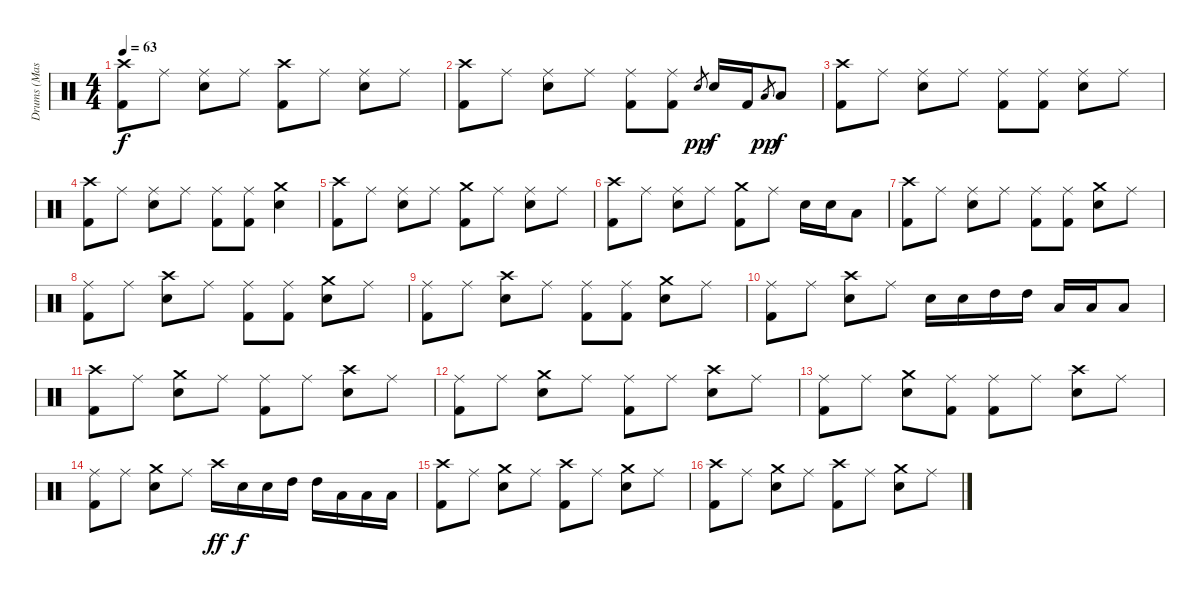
\track ("Drums (Mason)" "Drums (Mas") {instrument percussion}
\staff {score}
\articulation defaults
\ts (4 4)
\tempo 63
\clef neutral
\ks c
("Crash high (hit)" "Kick (hit) 2").8{dy f} "Ride (middle)".8 ("Ride (middle)" "Snare (hit) 2").8 "Ride (middle)".8 ("Crash high (hit)" "Kick (hit) 2").8 "Ride (middle)".8 ("Ride (middle)" "Snare (hit) 2").8 "Ride (middle)".8 |
("Crash high (hit)" "Kick (hit) 2").8 "Ride (middle)".8 ("Ride (middle)" "Snare (hit) 2").8 "Ride (middle)".8 ("Ride (middle)" "Kick (hit) 2").8 ("Ride (middle)" "Kick (hit) 2").8 "Snare (hit) 2".8{gr dy pp} "Snare (hit) 2".16{dy f} "Kick (hit) 2".16 "Low Tom (hit)".8{gr dy pp} "Low Tom (hit)".8{dy f} |
("Crash high (hit)" "Kick (hit) 2").8 "Ride (middle)".8 ("Ride (middle)" "Snare (hit) 2").8 "Ride (middle)".8 ("Ride (middle)" "Kick (hit) 2").8 ("Ride (middle)" "Kick (hit) 2").8 ("Ride (middle)" "Snare (hit) 2").8 "Ride (middle)".8 |
("Crash high (hit)" "Kick (hit) 2").8 "Ride (middle)".8 ("Ride (middle)" "Snare (hit) 2").8 "Ride (middle)".8 ("Ride (middle)" "Kick (hit) 2").8 ("Ride (middle)" "Kick (hit) 2").8 ("Crash medium (hit)" "Snare (hit) 2").4 |
("Crash high (hit)" "Kick (hit) 2").8 "Ride (middle)".8 ("Ride (middle)" "Snare (hit) 2").8 "Ride (middle)".8 ("Crash medium (hit)" "Kick (hit) 2").8 "Ride (middle)".8 ("Ride (middle)" "Snare (hit) 2").8 "Ride (middle)".8 |
("Crash high (hit)" "Kick (hit) 2").8 "Ride (middle)".8 ("Ride (middle)" "Snare (hit) 2").8 "Ride (middle)".8 ("Crash medium (hit)" "Kick (hit) 2").8 "Ride (middle)".8 "Snare (hit) 2".16 "Snare (hit) 2".16 "Low Tom (hit)".8 |
("Crash high (hit)" "Kick (hit) 2").8 "Ride (middle)".8 ("Ride (middle)" "Snare (hit) 2").8 "Ride (middle)".8 ("Ride (middle)" "Kick (hit) 2").8 ("Ride (middle)" "Kick (hit) 2").8 ("Crash medium (hit)" "Snare (hit) 2").8 "Ride (middle)".8 |
("Ride (middle)" "Kick (hit) 2").8 "Ride (middle)".8 ("Crash high (hit)" "Snare (hit) 2").8 "Ride (middle)".8 ("Ride (middle)" "Kick (hit) 2").8 ("Ride (middle)" "Kick (hit) 2").8 ("Crash medium (hit)" "Snare (hit) 2").8 "Ride (middle)".8 |
("Ride (middle)" "Kick (hit) 2").8 "Ride (middle)".8 ("Crash high (hit)" "Snare (hit) 2").8 "Ride (middle)".8 ("Ride (middle)" "Kick (hit) 2").8 ("Ride (middle)" "Kick (hit) 2").8 ("Crash medium (hit)" "Snare (hit) 2").8 "Ride (middle)".8 |
("Ride (middle)" "Kick (hit) 2").8 "Ride (middle)".8 ("Crash high (hit)" "Snare (hit) 2").8 "Ride (middle)".8 "Snare (hit) 2".16 "Snare (hit) 2".16 "High Tom (hit)".16 "High Tom (hit)".16 "Low Tom (hit)".16 "Low Tom (hit)".16 "Low Floor Tom (hit)".8 |
("Crash high (hit)" "Kick (hit) 2").8 "Ride (middle)".8 ("Crash medium (hit)" "Snare (hit) 2").8 "Ride (middle)".8 ("Ride (middle)" "Kick (hit) 2").8 "Ride (middle)".8 ("Crash high (hit)" "Snare (hit) 2").8 "Ride (middle)".8 |
("Ride (middle)" "Kick (hit) 2").8 "Ride (middle)".8 ("Crash medium (hit)" "Snare (hit) 2").8 "Ride (middle)".8 ("Ride (middle)" "Kick (hit) 2").8 "Ride (middle)".8 ("Crash high (hit)" "Snare (hit) 2").8 "Ride (middle)".8 |
("Ride (middle)" "Kick (hit) 2").8 "Ride (middle)".8 ("Crash medium (hit)" "Snare (hit) 2").8 ("Ride (middle)" "Kick (hit) 2").8 ("Ride (middle)" "Kick (hit) 2").8 "Ride (middle)".8 ("Crash high (hit)" "Snare (hit) 2").8 "Ride (middle)".8 |
("Ride (middle)" "Kick (hit) 2").8 "Ride (middle)".8 ("Crash medium (hit)" "Snare (hit) 2").8 "Ride (middle)".8 "Crash high (hit)".16{dy ff} "Snare (hit) 2".16{dy f} "Snare (hit) 2".16 "High Tom (hit)".16 "High Tom (hit)".16 "Low Tom (hit)".16 "Low Tom (hit)".16 "Low Floor Tom (hit)".16 |
("Crash high (hit)" "Kick (hit) 2").8 "Ride (middle)".8 ("Crash medium (hit)" "Snare (hit) 2").8 "Ride (middle)".8 ("Crash high (hit)" "Kick (hit) 2").8 "Ride (middle)".8 ("Crash medium (hit)" "Snare (hit) 2").8 "Ride (middle)".8 |
("Crash high (hit)" "Kick (hit) 2").8 "Ride (middle)".8 ("Crash medium (hit)" "Snare (hit) 2").8 "Ride (middle)".8 ("Crash high (hit)" "Kick (hit) 2").8 "Ride (middle)".8 ("Crash medium (hit)" "Snare (hit) 2").8 "Ride (middle)".8
